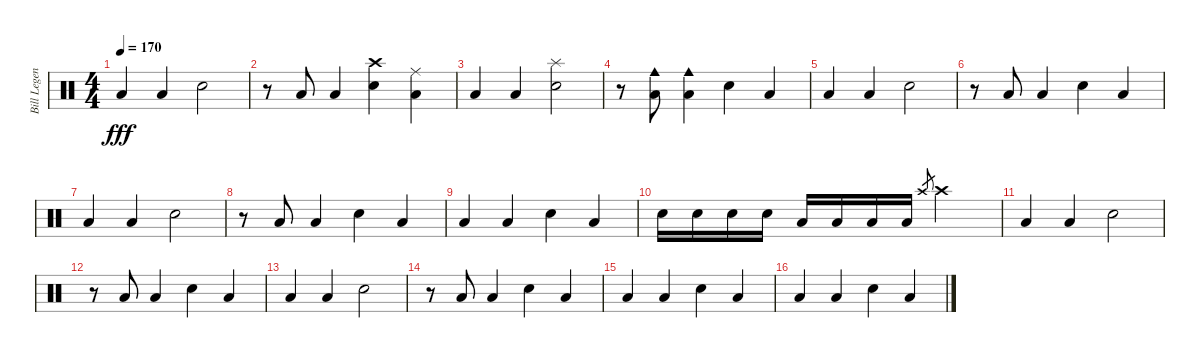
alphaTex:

\track ("Bill Legend" "Bill Legen") {instrument percussion}
\staff {score}
\articulation defaults
\ts (4 4)
\tempo 170
\clef neutral
\ks c "Low Floor Tom (hit)".4{dy fff} "Low Floor Tom (hit)".4 "Electric Snare (hit)".2
|
r.8 "Low Floor Tom (hit)".8 "Low Floor Tom (hit)".4 ("Electric Snare (hit)" "Crash high (hit)").4 ("Low Floor Tom (hit)" "Ride (middle)").4 |
"Low Floor Tom (hit)".4 "Low Floor Tom (hit)".4 ("Electric Snare (hit)" "Splash (hit)").2 |
r.8 ("Low Floor Tom (hit)" "Cowbell medium (hit)").8 ("Low Floor Tom (hit)" "Cowbell medium (hit)").4 "Electric Snare (hit)".4 "Low Floor Tom (hit)".4 |
"Low Floor Tom (hit)".4 "Low Floor Tom (hit)".4 "Electric Snare (hit)".2 |
r.8 "Low Floor Tom (hit)".8 "Low Floor Tom (hit)".4 "Electric Snare (hit)".4 "Low Floor Tom (hit)".4 |
"Low Floor Tom (hit)".4 "Low Floor Tom (hit)".4 "Electric Snare (hit)".2 |
r.8 "Low Floor Tom (hit)".8 "Low Floor Tom (hit)".4 "Electric Snare (hit)".4 "Low Floor Tom (hit)".4 |
"Low Floor Tom (hit)".4 "Low Floor Tom (hit)".4 "Electric Snare (hit)".4 "Low Floor Tom (hit)".4 |
"Electric Snare (hit)".16 "Electric Snare (hit)".16 "Electric Snare (hit)".16 "Electric Snare (hit)".16 "Low Floor Tom (hit)".16 "Low Floor Tom (hit)".16 "Low Floor Tom (hit)".16 "Low Floor Tom (hit)".16 "Crash high (hit)".8{gr} "Crash high (hit)".2 |
"Low Floor Tom (hit)".4 "Low Floor Tom (hit)".4 "Electric Snare (hit)".2 |
r.8 "Low Floor Tom (hit)".8 "Low Floor Tom (hit)".4 "Electric Snare (hit)".4 "Low Floor Tom (hit)".4 |
"Low Floor Tom (hit)".4 "Low Floor Tom (hit)".4 "Electric Snare (hit)".2 |
r.8 "Low Floor Tom (hit)".8 "Low Floor Tom (hit)".4 "Electric Snare (hit)".4 "Low Floor Tom (hit)".4 |
"Low Floor Tom (hit)".4 "Low Floor Tom (hit)".4 "Electric Snare (hit)".4 "Low Floor Tom (hit)".4 |
"Low Floor Tom (hit)".4 "Low Floor Tom (hit)".4 "Electric Snare (hit)".4 "Low Floor Tom (hit)".4
